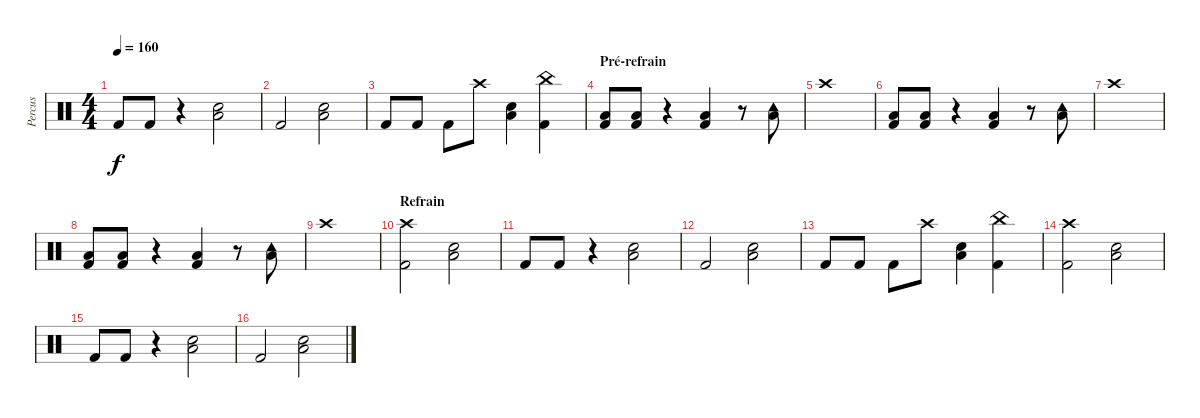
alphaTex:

\track ("Percus" "Percus") {instrument percussion}
\staff {score}
\articulation defaults
\ts (4 4)
\tempo 160
\clef neutral
\ks c "Kick (hit) 2".8{dy f} "Kick (hit) 2".8
r.4 ("Snare (hit) 2" "Low Floor Tom (hit)").2 |
"Kick (hit) 2".2 ("Snare (hit) 2" "Low Floor Tom (hit)").2 |
"Kick (hit) 2".8 "Kick (hit) 2".8 "Kick (hit) 2".8 "Crash high (hit)".8 ("Snare (hit) 2" "Low Floor Tom (hit)").4 ("Kick (hit) 2" "China (hit)").4 |
\section ("" "Pré-refrain")
("Kick (hit) 2" "Low Tom (hit)").8 ("Kick (hit) 2" "Low Tom (hit)").8 r.4 ("Kick (hit) 2" "Low Tom (hit)").4 r.8 ("Tambourine (hit)" "Low Floor Tom (hit)").8 |
"Crash high (hit)".1 |
("Kick (hit) 2" "Low Tom (hit)").8 ("Kick (hit) 2" "Low Tom (hit)").8 r.4 ("Kick (hit) 2" "Low Tom (hit)").4 r.8 ("Tambourine (hit)" "Low Floor Tom (hit)").8 |
"Crash high (hit)".1 |
("Kick (hit) 2" "Low Tom (hit)").8 ("Kick (hit) 2" "Low Tom (hit)").8 r.4 ("Kick (hit) 2" "Low Tom (hit)").4 r.8 ("Tambourine (hit)" "Low Floor Tom (hit)").8 |
"Crash high (hit)".1 |
\section ("" "Refrain")
("Crash high (hit)" "Kick (hit) 2").2 ("Snare (hit) 2" "Low Floor Tom (hit)").2 |
"Kick (hit) 2".8 "Kick (hit) 2".8 r.4 ("Snare (hit) 2" "Low Floor Tom (hit)").2 |
"Kick (hit) 2".2 ("Snare (hit) 2" "Low Floor Tom (hit)").2 |
"Kick (hit) 2".8 "Kick (hit) 2".8 "Kick (hit) 2".8 "Crash high (hit)".8 ("Snare (hit) 2" "Low Floor Tom (hit)").4 ("China (hit)" "Kick (hit) 2").4 |
("Crash high (hit)" "Kick (hit) 2").2 ("Snare (hit) 2" "Low Floor Tom (hit)").2 |
"Kick (hit) 2".8 "Kick (hit) 2".8 r.4 ("Snare (hit) 2" "Low Floor Tom (hit)").2 |
"Kick (hit) 2".2 ("Snare (hit) 2" "Low Floor Tom (hit)").2
